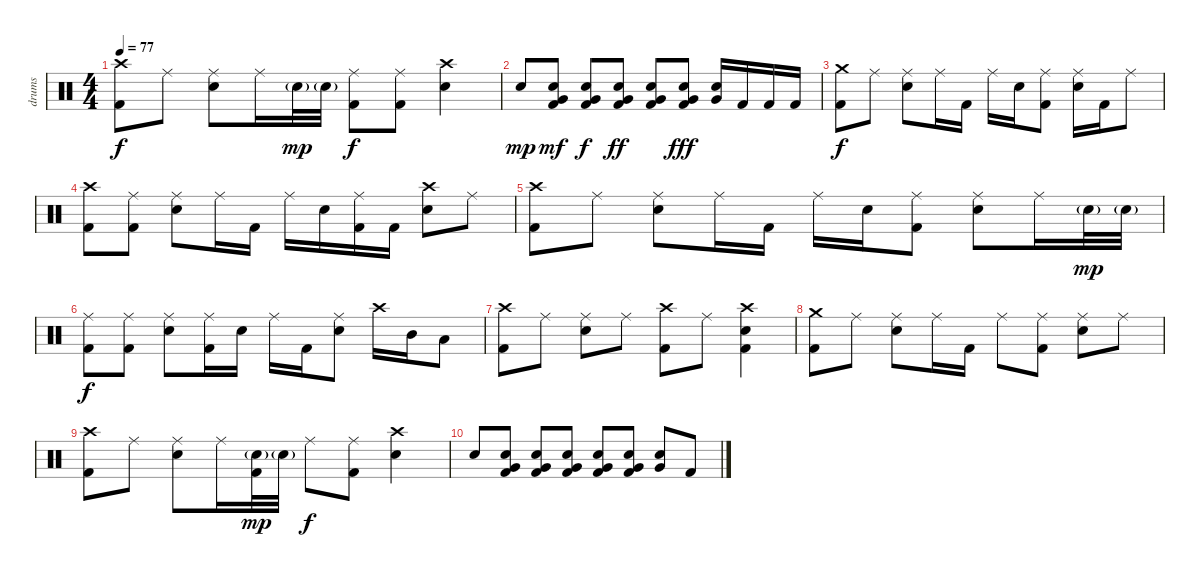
\track ("drums" "drums") {instrument percussion}
\staff {score}
\articulation defaults
\ts (4 4)
\tempo 77
\clef neutral
\ks c
("Crash high (hit)" "Kick (hit) 2").8{dy f} "Ride (middle)".8 ("Ride (middle)" "Electric Snare (hit)").8 "Ride (middle)".16 "Electric Snare (hit)"{g}.32{dy mp} "Electric Snare (hit)"{g}.32 ("Ride (middle)" "Kick (hit) 2").8{dy f} ("Ride (middle)" "Kick (hit) 2").8 ("Crash high (hit)" "Electric Snare (hit)").4 |
"Electric Snare (hit)".8{dy mp} ("Electric Snare (hit)" "Very Low Tom (hit)" "Kick (hit) 2").8{dy mf} ("Electric Snare (hit)" "Very Low Tom (hit)" "Kick (hit) 2").8{dy f} ("Electric Snare (hit)" "Very Low Tom (hit)" "Kick (hit) 2").8{dy ff} ("Electric Snare (hit)" "Very Low Tom (hit)" "Kick (hit) 2").8 ("Electric Snare (hit)" "Very Low Tom (hit)" "Kick (hit) 2").8{dy fff} ("Electric Snare (hit)" "Very Low Tom (hit)").16 "Kick (hit) 2".16 "Kick (hit) 2".16 "Kick (hit) 2".16 |
("Crash medium (hit)" "Kick (hit) 2").8{dy f volume 10} "Ride (middle)".8 ("Ride (middle)" "Electric Snare (hit)").8 "Ride (middle)".16 "Kick (hit) 2".16 "Ride (middle)".16 "Electric Snare (hit)".16 ("Ride (middle)" "Kick (hit) 2").8 ("Ride (middle)" "Electric Snare (hit)").16 "Kick (hit) 2".16 "Ride (middle)".8 |
("Crash high (hit)" "Kick (hit) 2").8 ("Ride (middle)" "Kick (hit) 2").8 ("Ride (middle)" "Electric Snare (hit)").8 "Ride (middle)".16 "Kick (hit) 2".16 "Ride (middle)".16 "Electric Snare (hit)".16 ("Ride (middle)" "Kick (hit) 2").16 "Kick (hit) 2".16 ("Crash high (hit)" "Electric Snare (hit)").8 "Ride (middle)".8 |
("Crash high (hit)" "Kick (hit) 2").8{volume 6} "Ride (middle)".8 ("Ride (middle)" "Electric Snare (hit)").8 "Ride (middle)".16 "Kick (hit) 2".16 "Ride (middle)".16 "Electric Snare (hit)".16 ("Ride (middle)" "Kick (hit) 2").8 ("Ride (middle)" "Electric Snare (hit)").8 "Ride (middle)".16 "Electric Snare (hit)"{g}.32{dy mp} "Electric Snare (hit)"{g}.32 |
("Ride (middle)" "Kick (hit) 2").8{dy f} ("Ride (middle)" "Kick (hit) 2").8 ("Ride (middle)" "Electric Snare (hit)").8 ("Ride (middle)" "Kick (hit) 2").16 "Electric Snare (hit)".16 "Ride (middle)".16 "Kick (hit) 2".16 ("Ride (middle)" "Electric Snare (hit)").8 "Crash high (hit)".16 "Mid Tom (hit)".16 "Low Tom (hit)".8 |
("Crash high (hit)" "Kick (hit) 2").8{volume 3} "Ride (middle)".8 ("Ride (middle)" "Electric Snare (hit)").8 "Ride (middle)".8 ("Crash high (hit)" "Kick (hit) 2").8 "Ride (middle)".8 ("Crash high (hit)" "Electric Snare (hit)" "Kick (hit) 2").4 |
("Crash medium (hit)" "Kick (hit) 2").8 "Ride (middle)".8 ("Ride (middle)" "Electric Snare (hit)").8 "Ride (middle)".16 "Kick (hit) 2".16 "Ride (middle)".8 ("Ride (middle)" "Kick (hit) 2").8 ("Ride (middle)" "Electric Snare (hit)").8 "Ride (middle)".8 |
("Crash high (hit)" "Kick (hit) 2").8{volume 0} "Ride (middle)".8 ("Ride (middle)" "Electric Snare (hit)").8 "Ride (middle)".16 ("Electric Snare (hit)"{g} "Kick (hit) 2").32{dy mp} "Electric Snare (hit)"{g}.32 "Ride (middle)".8{dy f} ("Ride (middle)" "Kick (hit) 2").8 ("Crash high (hit)" "Electric Snare (hit)").4 |
"Electric Snare (hit)".8 ("Electric Snare (hit)" "Very Low Tom (hit)" "Kick (hit) 2").8 ("Electric Snare (hit)" "Very Low Tom (hit)" "Kick (hit) 2").8 ("Electric Snare (hit)" "Very Low Tom (hit)" "Kick (hit) 2").8 ("Electric Snare (hit)" "Very Low Tom (hit)" "Kick (hit) 2").8 ("Electric Snare (hit)" "Very Low Tom (hit)" "Kick (hit) 2").8 ("Electric Snare (hit)" "Very Low Tom (hit)").8 "Kick (hit) 2".8
